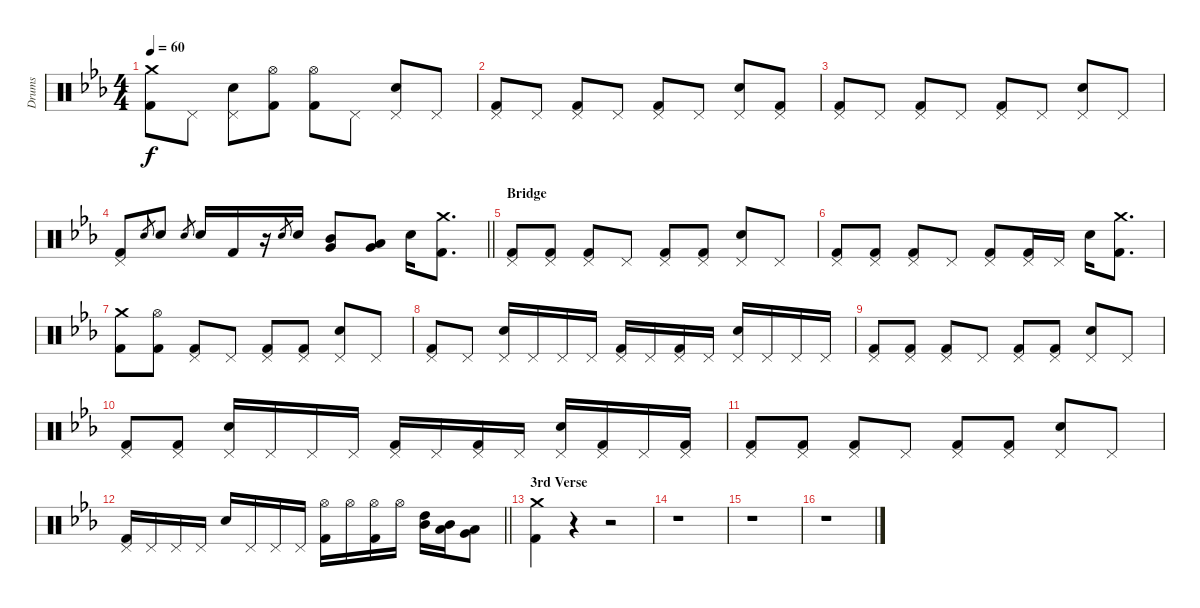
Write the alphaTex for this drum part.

\track ("Drums" "Drums") {instrument percussion}
\staff {score}
\articulation defaults
\ts (4 4)
\tempo 60
\clef neutral
\ks cminor
("Crash medium (hit)" "Kick (hit) 2").8{dy f} "Pedal Hi-Hat (hit)".8 ("Pedal Hi-Hat (hit)" "Snare (hit) 2").8 ("Hi-Hat (open)" "Kick (hit) 2").8 ("Hi-Hat (open)" "Kick (hit) 2").8 "Pedal Hi-Hat (hit)".8 ("Pedal Hi-Hat (hit)" "Snare (hit) 2").8 "Pedal Hi-Hat (hit)".8 |
("Pedal Hi-Hat (hit)" "Kick (hit) 2").8 "Pedal Hi-Hat (hit)".8 ("Pedal Hi-Hat (hit)" "Kick (hit) 2").8 "Pedal Hi-Hat (hit)".8 ("Pedal Hi-Hat (hit)" "Kick (hit) 2").8 "Pedal Hi-Hat (hit)".8 ("Pedal Hi-Hat (hit)" "Snare (hit) 2").8 ("Pedal Hi-Hat (hit)" "Kick (hit) 2").8 |
("Pedal Hi-Hat (hit)" "Kick (hit) 2").8 "Pedal Hi-Hat (hit)".8 ("Pedal Hi-Hat (hit)" "Kick (hit) 2").8 "Pedal Hi-Hat (hit)".8 ("Pedal Hi-Hat (hit)" "Kick (hit) 2").8 "Pedal Hi-Hat (hit)".8 ("Pedal Hi-Hat (hit)" "Snare (hit) 2").8 "Pedal Hi-Hat (hit)".8 |
\barLineRight lightlight
("Pedal Hi-Hat (hit)" "Kick (hit) 2").8 "Snare (hit) 2".8{gr} "Snare (hit) 2".8 "Snare (hit) 2".8{gr} "Snare (hit) 2".16 "Kick (hit) 2".16 r.16 "Snare (hit) 2".8{gr} "Snare (hit) 2".16 ("Mid Tom (hit)" "Very Low Tom (hit)").8 ("Low Tom (hit)" "Very Low Tom (hit)").8 "Snare (hit) 2".16 ("Crash medium (hit)" "Kick (hit) 2").8{d} |
\section ("" "Bridge")
("Pedal Hi-Hat (hit)" "Kick (hit) 2").8 ("Pedal Hi-Hat (hit)" "Kick (hit) 2").8 ("Pedal Hi-Hat (hit)" "Kick (hit) 2").8 "Pedal Hi-Hat (hit)".8 ("Pedal Hi-Hat (hit)" "Kick (hit) 2").8 ("Pedal Hi-Hat (hit)" "Kick (hit) 2").8 ("Pedal Hi-Hat (hit)" "Snare (hit) 2").8 "Pedal Hi-Hat (hit)".8 |
("Pedal Hi-Hat (hit)" "Kick (hit) 2").8 ("Pedal Hi-Hat (hit)" "Kick (hit) 2").8 ("Pedal Hi-Hat (hit)" "Kick (hit) 2").8 "Pedal Hi-Hat (hit)".8 ("Pedal Hi-Hat (hit)" "Kick (hit) 2").8 ("Pedal Hi-Hat (hit)" "Kick (hit) 2").16 "Pedal Hi-Hat (hit)".16 "Snare (hit) 2".16 ("Crash medium (hit)" "Kick (hit) 2").8{d} |
("Crash medium (hit)" "Kick (hit) 2").8 ("Hi-Hat (open)" "Kick (hit) 2").8 ("Pedal Hi-Hat (hit)" "Kick (hit) 2").8 "Pedal Hi-Hat (hit)".8 ("Pedal Hi-Hat (hit)" "Kick (hit) 2").8 ("Pedal Hi-Hat (hit)" "Kick (hit) 2").8 ("Pedal Hi-Hat (hit)" "Snare (hit) 2").8 "Pedal Hi-Hat (hit)".8 |
("Pedal Hi-Hat (hit)" "Kick (hit) 2").8 "Pedal Hi-Hat (hit)".8 ("Pedal Hi-Hat (hit)" "Snare (hit) 2").16 "Pedal Hi-Hat (hit)".16 "Pedal Hi-Hat (hit)".16 "Pedal Hi-Hat (hit)".16 ("Pedal Hi-Hat (hit)" "Kick (hit) 2").16 "Pedal Hi-Hat (hit)".16 ("Pedal Hi-Hat (hit)" "Kick (hit) 2").16 "Pedal Hi-Hat (hit)".16 ("Pedal Hi-Hat (hit)" "Snare (hit) 2").16 "Pedal Hi-Hat (hit)".16 "Pedal Hi-Hat (hit)".16 "Pedal Hi-Hat (hit)".16 |
("Pedal Hi-Hat (hit)" "Kick (hit) 2").8 ("Pedal Hi-Hat (hit)" "Kick (hit) 2").8 ("Pedal Hi-Hat (hit)" "Kick (hit) 2").8 "Pedal Hi-Hat (hit)".8 ("Pedal Hi-Hat (hit)" "Kick (hit) 2").8 ("Pedal Hi-Hat (hit)" "Kick (hit) 2").8 ("Pedal Hi-Hat (hit)" "Snare (hit) 2").8 "Pedal Hi-Hat (hit)".8 |
("Pedal Hi-Hat (hit)" "Kick (hit) 2").8 ("Pedal Hi-Hat (hit)" "Kick (hit) 2").8 ("Pedal Hi-Hat (hit)" "Snare (hit) 2").16 "Pedal Hi-Hat (hit)".16 "Pedal Hi-Hat (hit)".16 "Pedal Hi-Hat (hit)".16 ("Pedal Hi-Hat (hit)" "Kick (hit) 2").16 "Pedal Hi-Hat (hit)".16 ("Pedal Hi-Hat (hit)" "Kick (hit) 2").16 "Pedal Hi-Hat (hit)".16 ("Pedal Hi-Hat (hit)" "Snare (hit) 2").16 ("Pedal Hi-Hat (hit)" "Kick (hit) 2").16 "Pedal Hi-Hat (hit)".16 ("Pedal Hi-Hat (hit)" "Kick (hit) 2").16 |
("Pedal Hi-Hat (hit)" "Kick (hit) 2").8 ("Pedal Hi-Hat (hit)" "Kick (hit) 2").8 ("Pedal Hi-Hat (hit)" "Kick (hit) 2").8 "Pedal Hi-Hat (hit)".8 ("Pedal Hi-Hat (hit)" "Kick (hit) 2").8 ("Pedal Hi-Hat (hit)" "Kick (hit) 2").8 ("Pedal Hi-Hat (hit)" "Snare (hit) 2").8 "Pedal Hi-Hat (hit)".8 |
\barLineRight lightlight
("Pedal Hi-Hat (hit)" "Kick (hit) 2").16 "Pedal Hi-Hat (hit)".16 "Pedal Hi-Hat (hit)".16 "Pedal Hi-Hat (hit)".16 "Snare (hit) 2".16 "Pedal Hi-Hat (hit)".16 "Pedal Hi-Hat (hit)".16 "Pedal Hi-Hat (hit)".16 ("Hi-Hat (open)" "Kick (hit) 2").16 "Hi-Hat (open)".16 ("Hi-Hat (open)" "Kick (hit) 2").16 "Hi-Hat (open)".16 ("High Tom (hit)" "Mid Tom (hit)").16 ("Mid Tom (hit)" "Low Tom (hit)").16 ("Low Tom (hit)" "Very Low Tom (hit)").8 |
\section ("" "3rd Verse")
("Crash medium (hit)" "Kick (hit) 2").4 r.4 r.2 |
r.1 |
r.1 |
r.1
